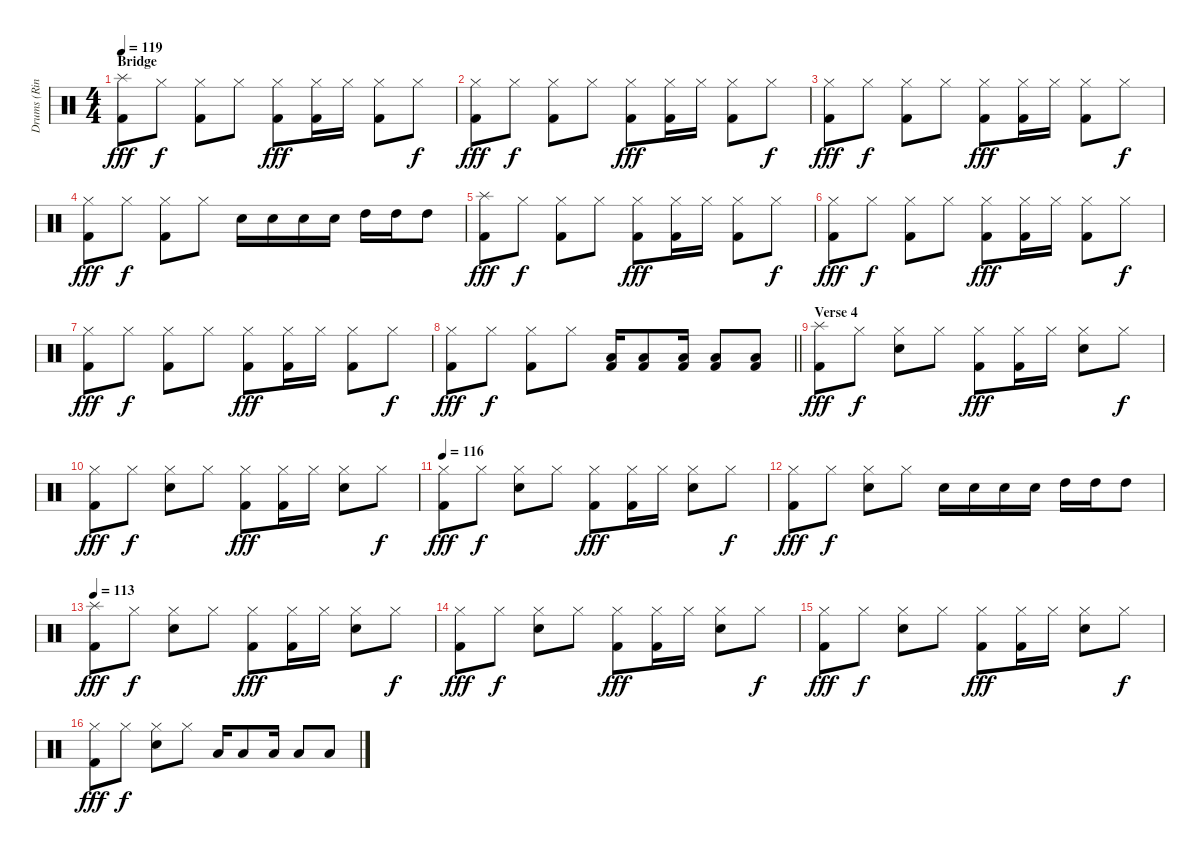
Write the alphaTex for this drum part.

\track ("Drums (Ringo Starr)" "Drums (Rin") {instrument percussion}
\staff {score}
\articulation defaults
\ts (4 4)
\section ("" "Bridge")
\tempo 119
\clef neutral
\ks c
("Splash (hit)" "Kick (hit) 2").8{dy fff} "Hi-Hat (closed)".8{dy f} ("Hi-Hat (closed)" "Kick (hit) 2").8 "Hi-Hat (closed)".8 ("Hi-Hat (closed)" "Kick (hit) 2").8{dy fff} ("Hi-Hat (closed)" "Kick (hit) 2").16 "Hi-Hat (closed)".16 ("Hi-Hat (closed)" "Kick (hit) 2").8 "Hi-Hat (closed)".8{dy f} |
("Hi-Hat (closed)" "Kick (hit) 2").8{dy fff} "Hi-Hat (closed)".8{dy f} ("Hi-Hat (closed)" "Kick (hit) 2").8 "Hi-Hat (closed)".8 ("Hi-Hat (closed)" "Kick (hit) 2").8{dy fff} ("Hi-Hat (closed)" "Kick (hit) 2").16 "Hi-Hat (closed)".16 ("Hi-Hat (closed)" "Kick (hit) 2").8 "Hi-Hat (closed)".8{dy f} |
("Hi-Hat (closed)" "Kick (hit) 2").8{dy fff} "Hi-Hat (closed)".8{dy f} ("Hi-Hat (closed)" "Kick (hit) 2").8 "Hi-Hat (closed)".8 ("Hi-Hat (closed)" "Kick (hit) 2").8{dy fff} ("Hi-Hat (closed)" "Kick (hit) 2").16 "Hi-Hat (closed)".16 ("Hi-Hat (closed)" "Kick (hit) 2").8 "Hi-Hat (closed)".8{dy f} |
("Hi-Hat (closed)" "Kick (hit) 2").8{dy fff} "Hi-Hat (closed)".8{dy f} ("Hi-Hat (closed)" "Kick (hit) 2").8 "Hi-Hat (closed)".8 "Snare (hit) 2".16 "Snare (hit) 2".16 "Snare (hit) 2".16 "Snare (hit) 2".16 "High Tom (hit)".16 "High Tom (hit)".16 "High Tom (hit)".8 |
("Splash (hit)" "Kick (hit) 2").8{dy fff} "Hi-Hat (closed)".8{dy f} ("Hi-Hat (closed)" "Kick (hit) 2").8 "Hi-Hat (closed)".8 ("Hi-Hat (closed)" "Kick (hit) 2").8{dy fff} ("Hi-Hat (closed)" "Kick (hit) 2").16 "Hi-Hat (closed)".16 ("Hi-Hat (closed)" "Kick (hit) 2").8 "Hi-Hat (closed)".8{dy f} |
("Hi-Hat (closed)" "Kick (hit) 2").8{dy fff} "Hi-Hat (closed)".8{dy f} ("Hi-Hat (closed)" "Kick (hit) 2").8 "Hi-Hat (closed)".8 ("Hi-Hat (closed)" "Kick (hit) 2").8{dy fff} ("Hi-Hat (closed)" "Kick (hit) 2").16 "Hi-Hat (closed)".16 ("Hi-Hat (closed)" "Kick (hit) 2").8 "Hi-Hat (closed)".8{dy f} |
("Hi-Hat (closed)" "Kick (hit) 2").8{dy fff} "Hi-Hat (closed)".8{dy f} ("Hi-Hat (closed)" "Kick (hit) 2").8 "Hi-Hat (closed)".8 ("Hi-Hat (closed)" "Kick (hit) 2").8{dy fff} ("Hi-Hat (closed)" "Kick (hit) 2").16 "Hi-Hat (closed)".16 ("Hi-Hat (closed)" "Kick (hit) 2").8 "Hi-Hat (closed)".8{dy f} |
\barLineRight lightlight
("Hi-Hat (closed)" "Kick (hit) 2").8{dy fff} "Hi-Hat (closed)".8{dy f} ("Hi-Hat (closed)" "Kick (hit) 2").8 "Hi-Hat (closed)".8 ("Low Floor Tom (hit)" "Kick (hit) 2").16 ("Low Floor Tom (hit)" "Kick (hit) 2").8 ("Low Floor Tom (hit)" "Kick (hit) 2").16 ("Low Floor Tom (hit)" "Kick (hit) 2").8 ("Low Floor Tom (hit)" "Kick (hit) 2").8 |
\section ("" "Verse 4")
("Splash (hit)" "Kick (hit) 2").8{dy fff} "Hi-Hat (closed)".8{dy f} ("Hi-Hat (closed)" "Snare (hit) 2").8 "Hi-Hat (closed)".8 ("Hi-Hat (closed)" "Kick (hit) 2").8{dy fff} ("Hi-Hat (closed)" "Kick (hit) 2").16 "Hi-Hat (closed)".16 ("Hi-Hat (closed)" "Snare (hit) 2").8 "Hi-Hat (closed)".8{dy f} |
("Hi-Hat (closed)" "Kick (hit) 2").8{dy fff} "Hi-Hat (closed)".8{dy f} ("Hi-Hat (closed)" "Snare (hit) 2").8 "Hi-Hat (closed)".8 ("Hi-Hat (closed)" "Kick (hit) 2").8{dy fff} ("Hi-Hat (closed)" "Kick (hit) 2").16 "Hi-Hat (closed)".16 ("Hi-Hat (closed)" "Snare (hit) 2").8 "Hi-Hat (closed)".8{dy f} |
\tempo 116
("Hi-Hat (closed)" "Kick (hit) 2").8{dy fff} "Hi-Hat (closed)".8{dy f} ("Hi-Hat (closed)" "Snare (hit) 2").8 "Hi-Hat (closed)".8 ("Hi-Hat (closed)" "Kick (hit) 2").8{dy fff} ("Hi-Hat (closed)" "Kick (hit) 2").16 "Hi-Hat (closed)".16 ("Hi-Hat (closed)" "Snare (hit) 2").8 "Hi-Hat (closed)".8{dy f} |
("Hi-Hat (closed)" "Kick (hit) 2").8{dy fff} "Hi-Hat (closed)".8{dy f} ("Hi-Hat (closed)" "Snare (hit) 2").8 "Hi-Hat (closed)".8 "Snare (hit) 2".16 "Snare (hit) 2".16 "Snare (hit) 2".16 "Snare (hit) 2".16 "High Tom (hit)".16 "High Tom (hit)".16 "High Tom (hit)".8 |
\tempo 113
("Splash (hit)" "Kick (hit) 2").8{dy fff} "Hi-Hat (closed)".8{dy f} ("Hi-Hat (closed)" "Snare (hit) 2").8 "Hi-Hat (closed)".8 ("Hi-Hat (closed)" "Kick (hit) 2").8{dy fff} ("Hi-Hat (closed)" "Kick (hit) 2").16 "Hi-Hat (closed)".16 ("Hi-Hat (closed)" "Snare (hit) 2").8 "Hi-Hat (closed)".8{dy f} |
("Hi-Hat (closed)" "Kick (hit) 2").8{dy fff} "Hi-Hat (closed)".8{dy f} ("Hi-Hat (closed)" "Snare (hit) 2").8 "Hi-Hat (closed)".8 ("Hi-Hat (closed)" "Kick (hit) 2").8{dy fff} ("Hi-Hat (closed)" "Kick (hit) 2").16 "Hi-Hat (closed)".16 ("Hi-Hat (closed)" "Snare (hit) 2").8 "Hi-Hat (closed)".8{dy f} |
("Hi-Hat (closed)" "Kick (hit) 2").8{dy fff} "Hi-Hat (closed)".8{dy f} ("Hi-Hat (closed)" "Snare (hit) 2").8 "Hi-Hat (closed)".8 ("Hi-Hat (closed)" "Kick (hit) 2").8{dy fff} ("Hi-Hat (closed)" "Kick (hit) 2").16 "Hi-Hat (closed)".16 ("Hi-Hat (closed)" "Snare (hit) 2").8 "Hi-Hat (closed)".8{dy f} |
("Hi-Hat (closed)" "Kick (hit) 2").8{dy fff} "Hi-Hat (closed)".8{dy f} ("Hi-Hat (closed)" "Snare (hit) 2").8 "Hi-Hat (closed)".8 "Low Floor Tom (hit)".16 "Low Floor Tom (hit)".8 "Low Floor Tom (hit)".16 "Low Floor Tom (hit)".8 "Low Floor Tom (hit)".8
